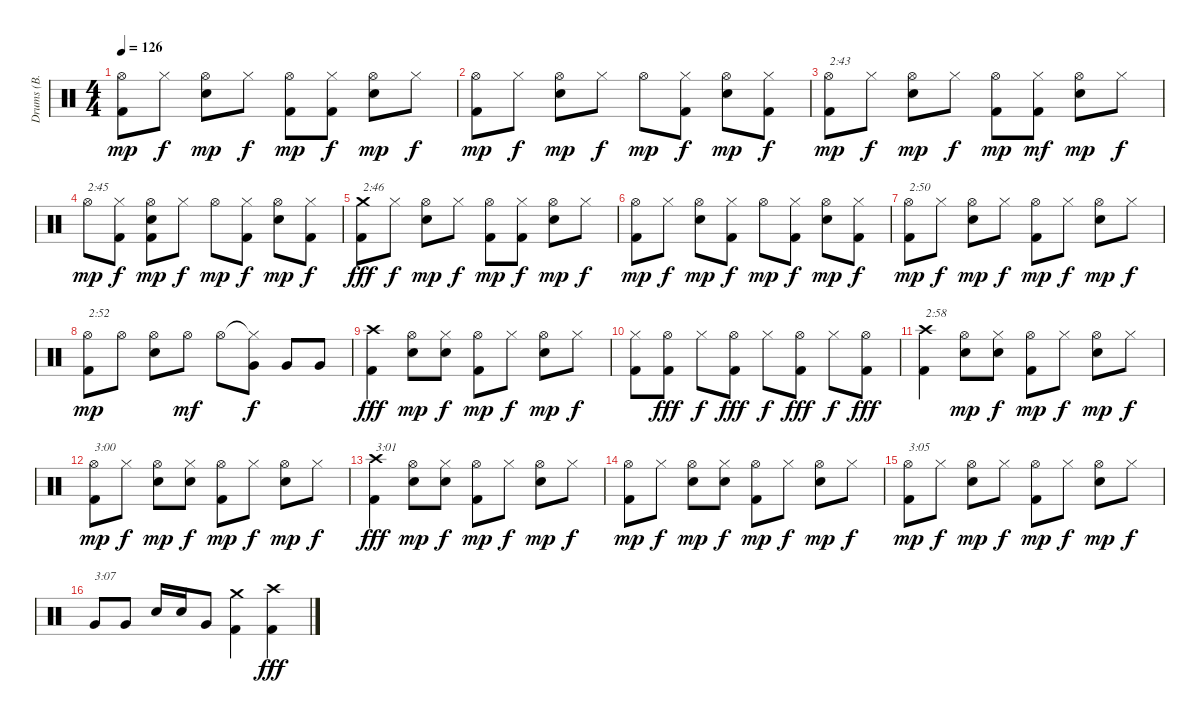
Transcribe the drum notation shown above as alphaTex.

\track ("Drums (B. Downey)" "Drums (B. ") {instrument percussion}
\staff {score}
\articulation defaults
\ts (4 4)
\tempo 126
\clef neutral
\ks c
("Hi-Hat (open)" "Kick (hit) 2").8{dy mp} "Hi-Hat (closed)".8{dy f} ("Hi-Hat (open)" "Electric Snare (hit)").8{dy mp} "Hi-Hat (closed)".8{dy f} ("Hi-Hat (open)" "Kick (hit) 2").8{dy mp} ("Hi-Hat (closed)" "Kick (hit) 2").8{dy f} ("Hi-Hat (open)" "Electric Snare (hit)").8{dy mp} "Hi-Hat (closed)".8{dy f} |
("Hi-Hat (open)" "Kick (hit) 2").8{dy mp} "Hi-Hat (closed)".8{dy f} ("Hi-Hat (open)" "Electric Snare (hit)").8{dy mp} "Hi-Hat (closed)".8{dy f} "Hi-Hat (open)".8{dy mp} ("Hi-Hat (closed)" "Kick (hit) 2").8{dy f} ("Hi-Hat (open)" "Electric Snare (hit)").8{dy mp} ("Hi-Hat (closed)" "Kick (hit) 2").8{dy f} |
("Hi-Hat (open)" "Kick (hit) 2").8{txt "2:43" dy mp} "Hi-Hat (closed)".8{dy f} ("Hi-Hat (open)" "Electric Snare (hit)").8{dy mp} "Hi-Hat (closed)".8{dy f} ("Hi-Hat (open)" "Kick (hit) 2").8{dy mp} ("Hi-Hat (closed)" "Kick (hit) 2").8{dy mf} ("Hi-Hat (open)" "Electric Snare (hit)").8{dy mp} "Hi-Hat (closed)".8{dy f} |
"Hi-Hat (open)".8{txt "2:45" dy mp} ("Hi-Hat (closed)" "Kick (hit) 2").8{dy f} ("Hi-Hat (open)" "Electric Snare (hit)" "Kick (hit) 2").8{dy mp} "Hi-Hat (closed)".8{dy f} "Hi-Hat (open)".8{dy mp} ("Hi-Hat (closed)" "Kick (hit) 2").8{dy f} ("Hi-Hat (open)" "Electric Snare (hit)").8{dy mp} ("Hi-Hat (closed)" "Kick (hit) 2").8{dy f} |
("Crash medium (hit)" "Kick (hit) 2").8{txt "2:46" dy fff} "Hi-Hat (closed)".8{dy f} ("Hi-Hat (open)" "Electric Snare (hit)").8{dy mp} "Hi-Hat (closed)".8{dy f} ("Hi-Hat (open)" "Kick (hit) 2").8{dy mp} ("Hi-Hat (closed)" "Kick (hit) 2").8{dy f} ("Hi-Hat (open)" "Electric Snare (hit)").8{dy mp} "Hi-Hat (closed)".8{dy f} |
("Hi-Hat (open)" "Kick (hit) 2").8{dy mp} "Hi-Hat (closed)".8{dy f} ("Hi-Hat (open)" "Electric Snare (hit)").8{dy mp} ("Hi-Hat (closed)" "Kick (hit) 2").8{dy f} "Hi-Hat (open)".8{dy mp} ("Hi-Hat (closed)" "Kick (hit) 2").8{dy f} ("Hi-Hat (open)" "Electric Snare (hit)").8{dy mp} ("Hi-Hat (closed)" "Kick (hit) 2").8{dy f} |
("Hi-Hat (open)" "Kick (hit) 2").8{txt "2:50" dy mp} "Hi-Hat (closed)".8{dy f} ("Hi-Hat (open)" "Electric Snare (hit)").8{dy mp} "Hi-Hat (closed)".8{dy f} ("Hi-Hat (open)" "Kick (hit) 2").8{dy mp} "Hi-Hat (closed)".8{dy f} ("Hi-Hat (open)" "Electric Snare (hit)").8{dy mp} "Hi-Hat (closed)".8{dy f} |
("Hi-Hat (open)" "Kick (hit) 2").8{txt "2:52" dy mp} "Hi-Hat (open)".8 ("Hi-Hat (open)" "Electric Snare (hit)").8 "Hi-Hat (open)".8{dy mf} "Hi-Hat (open)".8 ("Hi-Hat (closed)"{t} "Very Low Tom (hit)").8{dy f} "Very Low Tom (hit)".8 "Very Low Tom (hit)".8 |
("Crash high (hit)" "Kick (hit) 2").4{dy fff} ("Hi-Hat (open)" "Electric Snare (hit)").8{dy mp} ("Hi-Hat (closed)" "Electric Snare (hit)").8{dy f} ("Hi-Hat (open)" "Kick (hit) 2").8{dy mp} "Hi-Hat (closed)".8{dy f} ("Hi-Hat (open)" "Electric Snare (hit)").8{dy mp} "Hi-Hat (closed)".8{dy f} |
("Hi-Hat (closed)" "Kick (hit) 2").8 ("Hi-Hat (open)" "Kick (hit) 2").8{dy fff} "Hi-Hat (closed)".8{dy f} ("Hi-Hat (open)" "Kick (hit) 2").8{dy fff} "Hi-Hat (closed)".8{dy f} ("Hi-Hat (open)" "Kick (hit) 2").8{dy fff} "Hi-Hat (closed)".8{dy f} ("Hi-Hat (open)" "Kick (hit) 2").8{dy fff} |
("Crash high (hit)" "Kick (hit) 2").4{txt "2:58"} ("Hi-Hat (open)" "Electric Snare (hit)").8{dy mp} ("Hi-Hat (closed)" "Electric Snare (hit)").8{dy f} ("Hi-Hat (open)" "Kick (hit) 2").8{dy mp} "Hi-Hat (closed)".8{dy f} ("Hi-Hat (open)" "Electric Snare (hit)").8{dy mp} "Hi-Hat (closed)".8{dy f} |
("Hi-Hat (open)" "Kick (hit) 2").8{txt "3:00" dy mp} "Hi-Hat (closed)".8{dy f} ("Hi-Hat (open)" "Electric Snare (hit)").8{dy mp} ("Hi-Hat (closed)" "Electric Snare (hit)").8{dy f} ("Hi-Hat (open)" "Kick (hit) 2").8{dy mp} "Hi-Hat (closed)".8{dy f} ("Hi-Hat (open)" "Electric Snare (hit)").8{dy mp} "Hi-Hat (closed)".8{dy f} |
("Crash high (hit)" "Kick (hit) 2").4{txt "3:01" dy fff} ("Hi-Hat (open)" "Electric Snare (hit)").8{dy mp} ("Hi-Hat (closed)" "Electric Snare (hit)").8{dy f} ("Hi-Hat (open)" "Kick (hit) 2").8{dy mp} "Hi-Hat (closed)".8{dy f} ("Hi-Hat (open)" "Electric Snare (hit)").8{dy mp} "Hi-Hat (closed)".8{dy f} |
("Hi-Hat (open)" "Kick (hit) 2").8{dy mp} "Hi-Hat (closed)".8{dy f} ("Hi-Hat (open)" "Electric Snare (hit)").8{dy mp} ("Hi-Hat (closed)" "Electric Snare (hit)").8{dy f} ("Hi-Hat (open)" "Kick (hit) 2").8{dy mp} "Hi-Hat (closed)".8{dy f} ("Hi-Hat (open)" "Electric Snare (hit)").8{dy mp} "Hi-Hat (closed)".8{dy f} |
("Hi-Hat (open)" "Kick (hit) 2").8{txt "3:05" dy mp} "Hi-Hat (closed)".8{dy f} ("Hi-Hat (open)" "Electric Snare (hit)").8{dy mp} "Hi-Hat (closed)".8{dy f} ("Hi-Hat (open)" "Kick (hit) 2").8{dy mp} "Hi-Hat (closed)".8{dy f} ("Hi-Hat (open)" "Electric Snare (hit)").8{dy mp} "Hi-Hat (closed)".8{dy f} |
"Very Low Tom (hit)".8{txt "3:07"} "Very Low Tom (hit)".8 "Electric Snare (hit)".16 "Electric Snare (hit)".16 "Very Low Tom (hit)".8 ("Crash medium (hit)" "Kick (hit) 2").4 ("Crash high (hit)" "Kick (hit) 2").4{dy fff}
